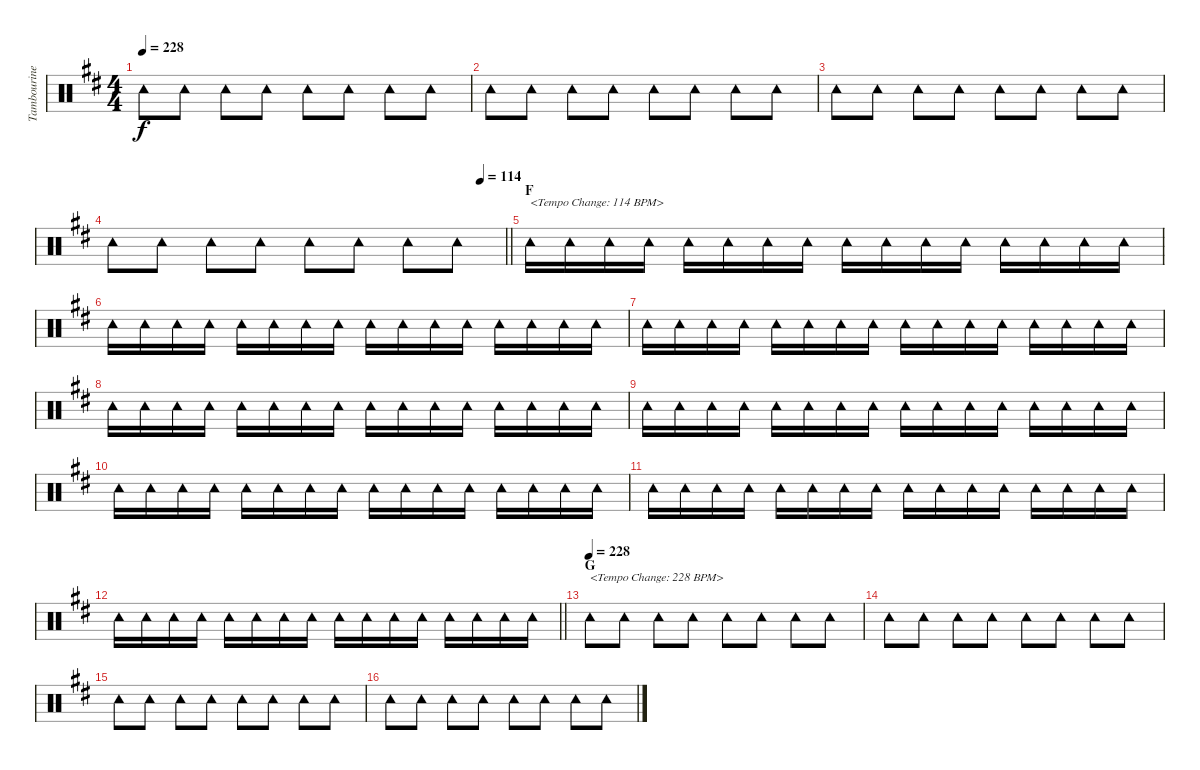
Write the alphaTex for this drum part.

\track ("Tambourine" "Tambourine") {instrument percussion}
\staff {score}
\articulation defaults
\ts (4 4)
\tempo 228
\clef neutral
\ks d "Tambourine (hit)".8{dy f} "Tambourine (hit)".8 "Tambourine (hit)".8 "Tambourine (hit)".8 "Tambourine (hit)".8 "Tambourine (hit)".8 "Tambourine (hit)".8 "Tambourine (hit)".8
|
"Tambourine (hit)".8 "Tambourine (hit)".8 "Tambourine (hit)".8 "Tambourine (hit)".8 "Tambourine (hit)".8 "Tambourine (hit)".8 "Tambourine (hit)".8 "Tambourine (hit)".8 |
"Tambourine (hit)".8 "Tambourine (hit)".8 "Tambourine (hit)".8 "Tambourine (hit)".8 "Tambourine (hit)".8 "Tambourine (hit)".8 "Tambourine (hit)".8 "Tambourine (hit)".8 |
\tempo (114 0.9375)
\barLineRight lightlight "Tambourine (hit)".8 "Tambourine (hit)".8 "Tambourine (hit)".8 "Tambourine (hit)".8 "Tambourine (hit)".8 "Tambourine (hit)".8 "Tambourine (hit)".8 "Tambourine (hit)".8
|
\section ("" "F")
"Tambourine (hit)".16{txt "<Tempo Change: 114 BPM>"} "Tambourine (hit)".16 "Tambourine (hit)".16 "Tambourine (hit)".16 "Tambourine (hit)".16 "Tambourine (hit)".16 "Tambourine (hit)".16 "Tambourine (hit)".16 "Tambourine (hit)".16 "Tambourine (hit)".16 "Tambourine (hit)".16 "Tambourine (hit)".16 "Tambourine (hit)".16 "Tambourine (hit)".16 "Tambourine (hit)".16 "Tambourine (hit)".16 |
"Tambourine (hit)".16 "Tambourine (hit)".16 "Tambourine (hit)".16 "Tambourine (hit)".16 "Tambourine (hit)".16 "Tambourine (hit)".16 "Tambourine (hit)".16 "Tambourine (hit)".16 "Tambourine (hit)".16 "Tambourine (hit)".16 "Tambourine (hit)".16 "Tambourine (hit)".16 "Tambourine (hit)".16 "Tambourine (hit)".16 "Tambourine (hit)".16 "Tambourine (hit)".16 |
"Tambourine (hit)".16 "Tambourine (hit)".16 "Tambourine (hit)".16 "Tambourine (hit)".16 "Tambourine (hit)".16 "Tambourine (hit)".16 "Tambourine (hit)".16 "Tambourine (hit)".16 "Tambourine (hit)".16 "Tambourine (hit)".16 "Tambourine (hit)".16 "Tambourine (hit)".16 "Tambourine (hit)".16 "Tambourine (hit)".16 "Tambourine (hit)".16 "Tambourine (hit)".16 |
"Tambourine (hit)".16 "Tambourine (hit)".16 "Tambourine (hit)".16 "Tambourine (hit)".16 "Tambourine (hit)".16 "Tambourine (hit)".16 "Tambourine (hit)".16 "Tambourine (hit)".16 "Tambourine (hit)".16 "Tambourine (hit)".16 "Tambourine (hit)".16 "Tambourine (hit)".16 "Tambourine (hit)".16 "Tambourine (hit)".16 "Tambourine (hit)".16 "Tambourine (hit)".16 |
"Tambourine (hit)".16 "Tambourine (hit)".16 "Tambourine (hit)".16 "Tambourine (hit)".16 "Tambourine (hit)".16 "Tambourine (hit)".16 "Tambourine (hit)".16 "Tambourine (hit)".16 "Tambourine (hit)".16 "Tambourine (hit)".16 "Tambourine (hit)".16 "Tambourine (hit)".16 "Tambourine (hit)".16 "Tambourine (hit)".16 "Tambourine (hit)".16 "Tambourine (hit)".16 |
"Tambourine (hit)".16 "Tambourine (hit)".16 "Tambourine (hit)".16 "Tambourine (hit)".16 "Tambourine (hit)".16 "Tambourine (hit)".16 "Tambourine (hit)".16 "Tambourine (hit)".16 "Tambourine (hit)".16 "Tambourine (hit)".16 "Tambourine (hit)".16 "Tambourine (hit)".16 "Tambourine (hit)".16 "Tambourine (hit)".16 "Tambourine (hit)".16 "Tambourine (hit)".16 |
"Tambourine (hit)".16 "Tambourine (hit)".16 "Tambourine (hit)".16 "Tambourine (hit)".16 "Tambourine (hit)".16 "Tambourine (hit)".16 "Tambourine (hit)".16 "Tambourine (hit)".16 "Tambourine (hit)".16 "Tambourine (hit)".16 "Tambourine (hit)".16 "Tambourine (hit)".16 "Tambourine (hit)".16 "Tambourine (hit)".16 "Tambourine (hit)".16 "Tambourine (hit)".16 |
\barLineRight lightlight "Tambourine (hit)".16 "Tambourine (hit)".16 "Tambourine (hit)".16 "Tambourine (hit)".16 "Tambourine (hit)".16 "Tambourine (hit)".16 "Tambourine (hit)".16 "Tambourine (hit)".16 "Tambourine (hit)".16 "Tambourine (hit)".16 "Tambourine (hit)".16 "Tambourine (hit)".16 "Tambourine (hit)".16 "Tambourine (hit)".16 "Tambourine (hit)".16 "Tambourine (hit)".16
|
\section ("" "G")
\tempo (228)
"Tambourine (hit)".8{txt "<Tempo Change: 228 BPM>"} "Tambourine (hit)".8 "Tambourine (hit)".8 "Tambourine (hit)".8 "Tambourine (hit)".8 "Tambourine (hit)".8 "Tambourine (hit)".8 "Tambourine (hit)".8 |
"Tambourine (hit)".8 "Tambourine (hit)".8 "Tambourine (hit)".8 "Tambourine (hit)".8 "Tambourine (hit)".8 "Tambourine (hit)".8 "Tambourine (hit)".8 "Tambourine (hit)".8 |
"Tambourine (hit)".8 "Tambourine (hit)".8 "Tambourine (hit)".8 "Tambourine (hit)".8 "Tambourine (hit)".8 "Tambourine (hit)".8 "Tambourine (hit)".8 "Tambourine (hit)".8 |
"Tambourine (hit)".8 "Tambourine (hit)".8 "Tambourine (hit)".8 "Tambourine (hit)".8 "Tambourine (hit)".8 "Tambourine (hit)".8 "Tambourine (hit)".8 "Tambourine (hit)".8
